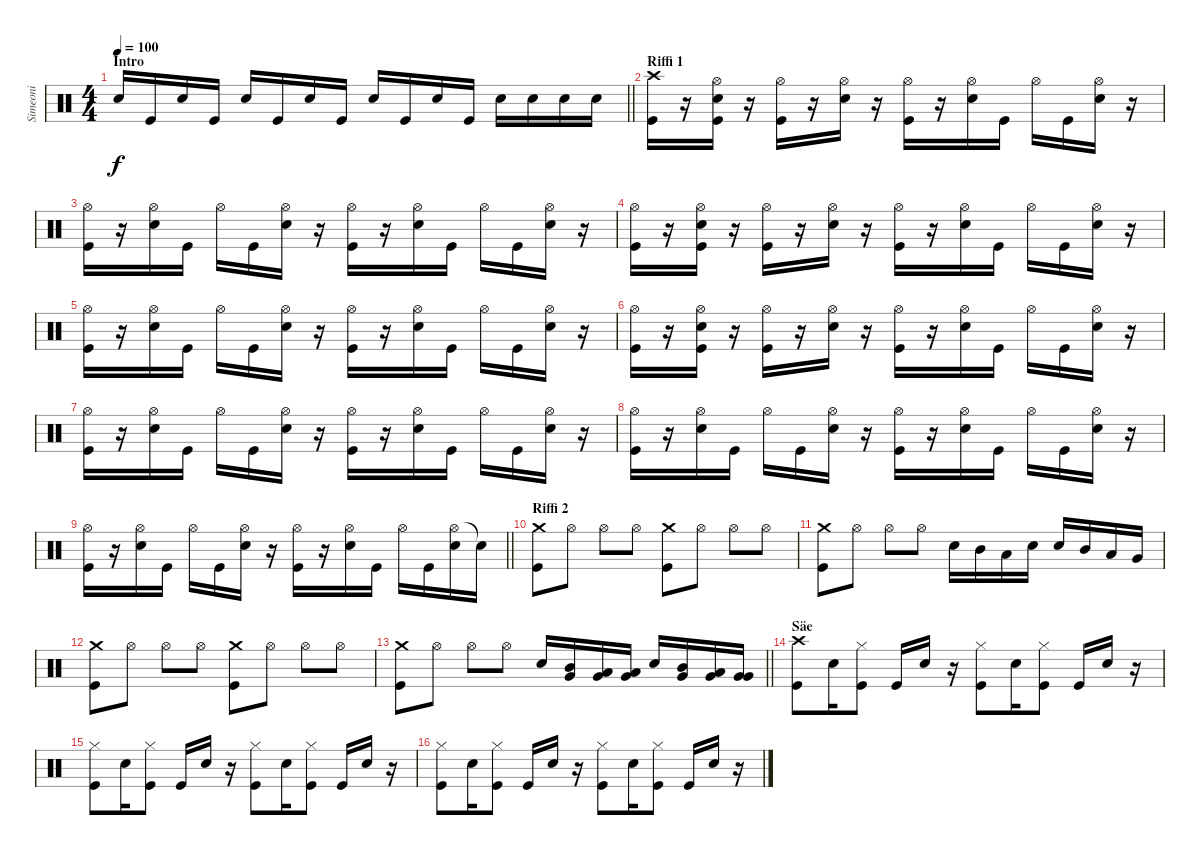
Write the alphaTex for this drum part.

\track ("Simeoni" "Simeoni") {instrument percussion}
\staff {score}
\articulation defaults
\ts (4 4)
\section ("" "Intro")
\tempo 100
\clef neutral
\barLineRight lightlight
\ks c "Electric Snare (hit)".16{dy f} "Kick (hit)".16 "Electric Snare (hit)".16 "Kick (hit)".16 "Electric Snare (hit)".16 "Kick (hit)".16 "Electric Snare (hit)".16 "Kick (hit)".16 "Electric Snare (hit)".16 "Kick (hit)".16 "Electric Snare (hit)".16 "Kick (hit)".16 "Electric Snare (hit)".16 "Electric Snare (hit)".16 "Electric Snare (hit)".16 "Electric Snare (hit)".16
|
\section ("" "Riffi 1")
("Crash high (hit)" "Kick (hit)").16 r.16 ("Hi-Hat (open)" "Electric Snare (hit)" "Kick (hit)").16 r.16 ("Hi-Hat (open)" "Kick (hit)").16 r.16 ("Hi-Hat (open)" "Electric Snare (hit)").16 r.16 ("Hi-Hat (open)" "Kick (hit)").16 r.16 ("Hi-Hat (open)" "Electric Snare (hit)").16 "Kick (hit)".16 "Hi-Hat (open)".16 "Kick (hit)".16 ("Hi-Hat (open)" "Electric Snare (hit)").16 r.16 |
("Hi-Hat (open)" "Kick (hit)").16 r.16 ("Hi-Hat (open)" "Electric Snare (hit)").16 "Kick (hit)".16 "Hi-Hat (open)".16 "Kick (hit)".16 ("Hi-Hat (open)" "Electric Snare (hit)").16 r.16 ("Hi-Hat (open)" "Kick (hit)").16 r.16 ("Hi-Hat (open)" "Electric Snare (hit)").16 "Kick (hit)".16 "Hi-Hat (open)".16 "Kick (hit)".16 ("Hi-Hat (open)" "Electric Snare (hit)").16 r.16 |
("Hi-Hat (open)" "Kick (hit)").16 r.16 ("Hi-Hat (open)" "Electric Snare (hit)" "Kick (hit)").16 r.16 ("Hi-Hat (open)" "Kick (hit)").16 r.16 ("Hi-Hat (open)" "Electric Snare (hit)").16 r.16 ("Hi-Hat (open)" "Kick (hit)").16 r.16 ("Hi-Hat (open)" "Electric Snare (hit)").16 "Kick (hit)".16 "Hi-Hat (open)".16 "Kick (hit)".16 ("Hi-Hat (open)" "Electric Snare (hit)").16 r.16 |
("Hi-Hat (open)" "Kick (hit)").16 r.16 ("Hi-Hat (open)" "Electric Snare (hit)").16 "Kick (hit)".16 "Hi-Hat (open)".16 "Kick (hit)".16 ("Hi-Hat (open)" "Electric Snare (hit)").16 r.16 ("Hi-Hat (open)" "Kick (hit)").16 r.16 ("Hi-Hat (open)" "Electric Snare (hit)").16 "Kick (hit)".16 "Hi-Hat (open)".16 "Kick (hit)".16 ("Hi-Hat (open)" "Electric Snare (hit)").16 r.16 |
("Hi-Hat (open)" "Kick (hit)").16 r.16 ("Hi-Hat (open)" "Electric Snare (hit)" "Kick (hit)").16 r.16 ("Hi-Hat (open)" "Kick (hit)").16 r.16 ("Hi-Hat (open)" "Electric Snare (hit)").16 r.16 ("Hi-Hat (open)" "Kick (hit)").16 r.16 ("Hi-Hat (open)" "Electric Snare (hit)").16 "Kick (hit)".16 "Hi-Hat (open)".16 "Kick (hit)".16 ("Hi-Hat (open)" "Electric Snare (hit)").16 r.16 |
("Hi-Hat (open)" "Kick (hit)").16 r.16 ("Hi-Hat (open)" "Electric Snare (hit)").16 "Kick (hit)".16 "Hi-Hat (open)".16 "Kick (hit)".16 ("Hi-Hat (open)" "Electric Snare (hit)").16 r.16 ("Hi-Hat (open)" "Kick (hit)").16 r.16 ("Hi-Hat (open)" "Electric Snare (hit)").16 "Kick (hit)".16 "Hi-Hat (open)".16 "Kick (hit)".16 ("Hi-Hat (open)" "Electric Snare (hit)").16 r.16 |
("Hi-Hat (open)" "Kick (hit)").16 r.16 ("Hi-Hat (open)" "Electric Snare (hit)").16 "Kick (hit)".16 "Hi-Hat (open)".16 "Kick (hit)".16 ("Hi-Hat (open)" "Electric Snare (hit)").16 r.16 ("Hi-Hat (open)" "Kick (hit)").16 r.16 ("Hi-Hat (open)" "Electric Snare (hit)").16 "Kick (hit)".16 "Hi-Hat (open)".16 "Kick (hit)".16 ("Hi-Hat (open)" "Electric Snare (hit)").16 r.16 |
\barLineRight lightlight
("Hi-Hat (open)" "Kick (hit)").16 r.16 ("Hi-Hat (open)" "Electric Snare (hit)").16 "Kick (hit)".16 "Hi-Hat (open)".16 "Kick (hit)".16 ("Hi-Hat (open)" "Electric Snare (hit)").16 r.16 ("Hi-Hat (open)" "Kick (hit)").16 r.16 ("Hi-Hat (open)" "Electric Snare (hit)").16 "Kick (hit)".16 "Hi-Hat (open)".16 "Kick (hit)".16 ("Hi-Hat (open)" "Electric Snare (hit)").16 "Snare (hit)"{t}.16 |
\section ("" "Riffi 2")
("Crash medium (hit)" "Kick (hit)").8 "Hi-Hat (open)".8 "Hi-Hat (open)".8 "Hi-Hat (open)".8 ("Crash medium (hit)" "Kick (hit)").8 "Hi-Hat (open)".8 "Hi-Hat (open)".8 "Hi-Hat (open)".8 |
("Crash medium (hit)" "Kick (hit)").8 "Hi-Hat (open)".8 "Hi-Hat (open)".8 "Hi-Hat (open)".8 "Electric Snare (hit)".16 "Mid Tom (hit)".16 "Low Tom (hit)".16 "Electric Snare (hit)".16 "Electric Snare (hit)".16 "Mid Tom (hit)".16 "Low Tom (hit)".16 "Very Low Tom (hit)".16 |
("Crash medium (hit)" "Kick (hit)").8 "Hi-Hat (open)".8 "Hi-Hat (open)".8 "Hi-Hat (open)".8 ("Crash medium (hit)" "Kick (hit)").8 "Hi-Hat (open)".8 "Hi-Hat (open)".8 "Hi-Hat (open)".8 |
\barLineRight lightlight
("Crash medium (hit)" "Kick (hit)").8 "Hi-Hat (open)".8 "Hi-Hat (open)".8 "Hi-Hat (open)".8 "Electric Snare (hit)".16 ("Mid Tom (hit)" "Very Low Tom (hit)").16 ("Low Tom (hit)" "Very Low Tom (hit)").16 ("Low Tom (hit)" "Very Low Tom (hit)").16 "Electric Snare (hit)".16 ("Mid Tom (hit)" "Very Low Tom (hit)").16 ("Low Tom (hit)" "Very Low Tom (hit)").16 ("Very Low Tom (hit)" "Very Low Tom (hit)").16 |
\section ("" "Säe")
("Crash high (hit)" "Kick (hit)").8 "Electric Snare (hit)".16 ("Hi-Hat (closed)" "Kick (hit)").8 "Kick (hit)".16 "Electric Snare (hit)".16 r.16 ("Hi-Hat (closed)" "Kick (hit)").8 "Electric Snare (hit)".16 ("Hi-Hat (closed)" "Kick (hit)").8 "Kick (hit)".16 "Electric Snare (hit)".16 r.16 |
("Hi-Hat (closed)" "Kick (hit)").8 "Electric Snare (hit)".16 ("Hi-Hat (closed)" "Kick (hit)").8 "Kick (hit)".16 "Electric Snare (hit)".16 r.16 ("Hi-Hat (closed)" "Kick (hit)").8 "Electric Snare (hit)".16 ("Hi-Hat (closed)" "Kick (hit)").8 "Kick (hit)".16 "Electric Snare (hit)".16 r.16 |
("Hi-Hat (closed)" "Kick (hit)").8 "Electric Snare (hit)".16 ("Hi-Hat (closed)" "Kick (hit)").8 "Kick (hit)".16 "Electric Snare (hit)".16 r.16 ("Hi-Hat (closed)" "Kick (hit)").8 "Electric Snare (hit)".16 ("Hi-Hat (closed)" "Kick (hit)").8 "Kick (hit)".16 "Electric Snare (hit)".16 r.16
